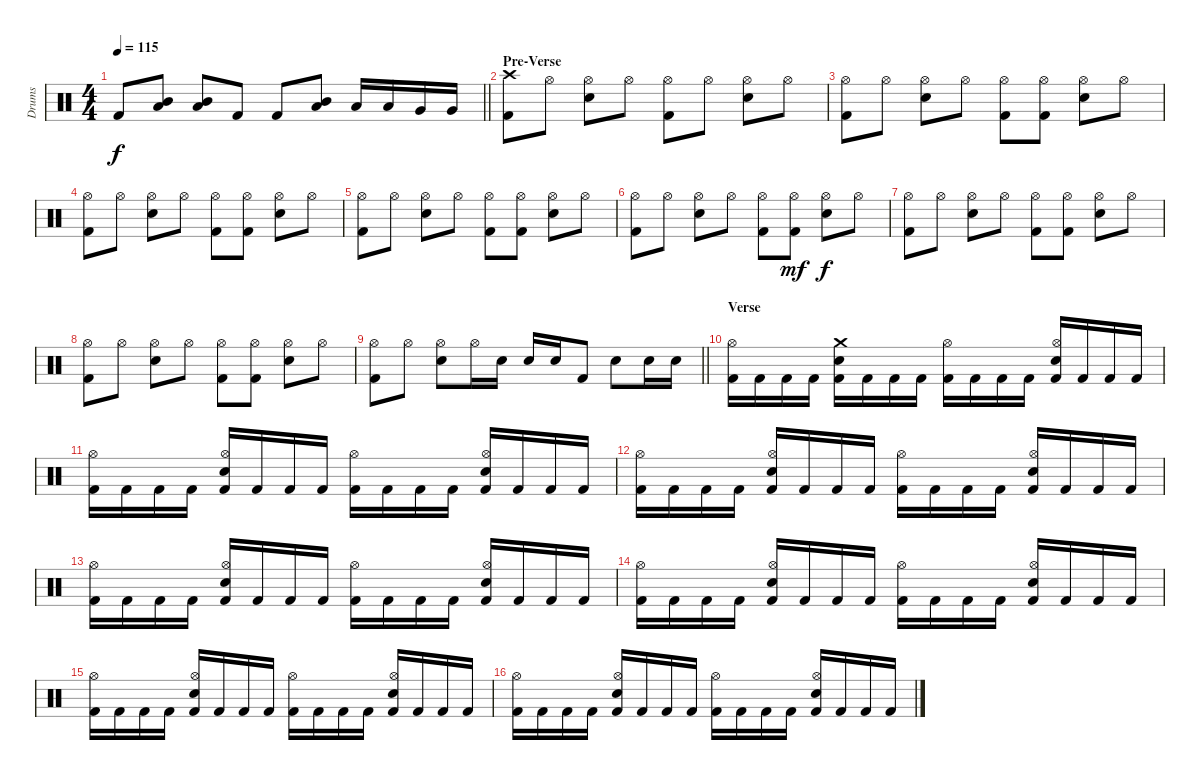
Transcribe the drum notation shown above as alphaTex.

\track ("Drums" "Drums") {instrument percussion}
\staff {score}
\articulation defaults
\ts (4 4)
\tempo 115
\clef neutral
\barLineRight lightlight
\ks c "Kick (hit) 2".8{dy f}
("Mid Tom (hit)" "Low Tom (hit)").8 ("Mid Tom (hit)" "Low Tom (hit)").8 "Kick (hit) 2".8 "Kick (hit) 2".8 ("Mid Tom (hit)" "Low Tom (hit)").8 "Low Tom (hit)".16 "Low Tom (hit)".16 "Very Low Tom (hit)".16 "Very Low Tom (hit)".16 |
\section ("" "Pre-Verse")
("Crash high (hit)" "Kick (hit) 2").8 "Hi-Hat (open)".8 ("Hi-Hat (open)" "Electric Snare (hit)").8 "Hi-Hat (open)".8 ("Hi-Hat (open)" "Kick (hit) 2").8 "Hi-Hat (open)".8 ("Hi-Hat (open)" "Electric Snare (hit)").8 "Hi-Hat (open)".8 |
("Hi-Hat (open)" "Kick (hit) 2").8 "Hi-Hat (open)".8 ("Hi-Hat (open)" "Electric Snare (hit)").8 "Hi-Hat (open)".8 ("Hi-Hat (open)" "Kick (hit) 2").8 ("Hi-Hat (open)" "Kick (hit) 2").8 ("Hi-Hat (open)" "Electric Snare (hit)").8 "Hi-Hat (open)".8 |
("Hi-Hat (open)" "Kick (hit) 2").8 "Hi-Hat (open)".8 ("Hi-Hat (open)" "Electric Snare (hit)").8 "Hi-Hat (open)".8 ("Hi-Hat (open)" "Kick (hit) 2").8 ("Hi-Hat (open)" "Kick (hit) 2").8 ("Hi-Hat (open)" "Electric Snare (hit)").8 "Hi-Hat (open)".8 |
("Hi-Hat (open)" "Kick (hit) 2").8 "Hi-Hat (open)".8 ("Hi-Hat (open)" "Electric Snare (hit)").8 "Hi-Hat (open)".8 ("Hi-Hat (open)" "Kick (hit) 2").8 ("Hi-Hat (open)" "Kick (hit) 2").8 ("Hi-Hat (open)" "Electric Snare (hit)").8 "Hi-Hat (open)".8 |
("Hi-Hat (open)" "Kick (hit) 2").8 "Hi-Hat (open)".8 ("Hi-Hat (open)" "Electric Snare (hit)").8 "Hi-Hat (open)".8 ("Hi-Hat (open)" "Kick (hit) 2").8 ("Hi-Hat (open)" "Kick (hit) 2").8{dy mf} ("Hi-Hat (open)" "Electric Snare (hit)").8{dy f} "Hi-Hat (open)".8 |
("Hi-Hat (open)" "Kick (hit) 2").8 "Hi-Hat (open)".8 ("Hi-Hat (open)" "Electric Snare (hit)").8 "Hi-Hat (open)".8 ("Hi-Hat (open)" "Kick (hit) 2").8 ("Hi-Hat (open)" "Kick (hit) 2").8 ("Hi-Hat (open)" "Electric Snare (hit)").8 "Hi-Hat (open)".8 |
("Hi-Hat (open)" "Kick (hit) 2").8 "Hi-Hat (open)".8 ("Hi-Hat (open)" "Electric Snare (hit)").8 "Hi-Hat (open)".8 ("Hi-Hat (open)" "Kick (hit) 2").8 ("Hi-Hat (open)" "Kick (hit) 2").8 ("Hi-Hat (open)" "Electric Snare (hit)").8 "Hi-Hat (open)".8 |
\barLineRight lightlight
("Hi-Hat (open)" "Kick (hit) 2").8 "Hi-Hat (open)".8 ("Hi-Hat (open)" "Electric Snare (hit)").8 "Hi-Hat (open)".16 "Electric Snare (hit)".16 "Electric Snare (hit)".16 "Electric Snare (hit)".16 "Kick (hit) 2".8 "Electric Snare (hit)".8 "Electric Snare (hit)".16 "Electric Snare (hit)".16 |
\section ("" "Verse")
("Hi-Hat (open)" "Kick (hit) 2").16 "Kick (hit) 2".16 "Kick (hit) 2".16 "Kick (hit) 2".16 ("Crash medium (hit)" "Electric Snare (hit)" "Kick (hit) 2").16 "Kick (hit) 2".16 "Kick (hit) 2".16 "Kick (hit) 2".16 ("Hi-Hat (open)" "Kick (hit) 2").16 "Kick (hit) 2".16 "Kick (hit) 2".16 "Kick (hit) 2".16 ("Hi-Hat (open)" "Electric Snare (hit)" "Kick (hit) 2").16 "Kick (hit) 2".16 "Kick (hit) 2".16 "Kick (hit) 2".16 |
("Hi-Hat (open)" "Kick (hit) 2").16 "Kick (hit) 2".16 "Kick (hit) 2".16 "Kick (hit) 2".16 ("Hi-Hat (open)" "Electric Snare (hit)" "Kick (hit) 2").16 "Kick (hit) 2".16 "Kick (hit) 2".16 "Kick (hit) 2".16 ("Hi-Hat (open)" "Kick (hit) 2").16 "Kick (hit) 2".16 "Kick (hit) 2".16 "Kick (hit) 2".16 ("Hi-Hat (open)" "Electric Snare (hit)" "Kick (hit) 2").16 "Kick (hit) 2".16 "Kick (hit) 2".16 "Kick (hit) 2".16 |
("Hi-Hat (open)" "Kick (hit) 2").16 "Kick (hit) 2".16 "Kick (hit) 2".16 "Kick (hit) 2".16 ("Hi-Hat (open)" "Electric Snare (hit)" "Kick (hit) 2").16 "Kick (hit) 2".16 "Kick (hit) 2".16 "Kick (hit) 2".16 ("Hi-Hat (open)" "Kick (hit) 2").16 "Kick (hit) 2".16 "Kick (hit) 2".16 "Kick (hit) 2".16 ("Hi-Hat (open)" "Electric Snare (hit)" "Kick (hit) 2").16 "Kick (hit) 2".16 "Kick (hit) 2".16 "Kick (hit) 2".16 |
("Hi-Hat (open)" "Kick (hit) 2").16 "Kick (hit) 2".16 "Kick (hit) 2".16 "Kick (hit) 2".16 ("Hi-Hat (open)" "Electric Snare (hit)" "Kick (hit) 2").16 "Kick (hit) 2".16 "Kick (hit) 2".16 "Kick (hit) 2".16 ("Hi-Hat (open)" "Kick (hit) 2").16 "Kick (hit) 2".16 "Kick (hit) 2".16 "Kick (hit) 2".16 ("Hi-Hat (open)" "Electric Snare (hit)" "Kick (hit) 2").16 "Kick (hit) 2".16 "Kick (hit) 2".16 "Kick (hit) 2".16 |
("Hi-Hat (open)" "Kick (hit) 2").16 "Kick (hit) 2".16 "Kick (hit) 2".16 "Kick (hit) 2".16 ("Hi-Hat (open)" "Electric Snare (hit)" "Kick (hit) 2").16 "Kick (hit) 2".16 "Kick (hit) 2".16 "Kick (hit) 2".16 ("Hi-Hat (open)" "Kick (hit) 2").16 "Kick (hit) 2".16 "Kick (hit) 2".16 "Kick (hit) 2".16 ("Hi-Hat (open)" "Electric Snare (hit)" "Kick (hit) 2").16 "Kick (hit) 2".16 "Kick (hit) 2".16 "Kick (hit) 2".16 |
("Hi-Hat (open)" "Kick (hit) 2").16 "Kick (hit) 2".16 "Kick (hit) 2".16 "Kick (hit) 2".16 ("Hi-Hat (open)" "Electric Snare (hit)" "Kick (hit) 2").16 "Kick (hit) 2".16 "Kick (hit) 2".16 "Kick (hit) 2".16 ("Hi-Hat (open)" "Kick (hit) 2").16 "Kick (hit) 2".16 "Kick (hit) 2".16 "Kick (hit) 2".16 ("Hi-Hat (open)" "Electric Snare (hit)" "Kick (hit) 2").16 "Kick (hit) 2".16 "Kick (hit) 2".16 "Kick (hit) 2".16 |
("Hi-Hat (open)" "Kick (hit) 2").16 "Kick (hit) 2".16 "Kick (hit) 2".16 "Kick (hit) 2".16 ("Hi-Hat (open)" "Electric Snare (hit)" "Kick (hit) 2").16 "Kick (hit) 2".16 "Kick (hit) 2".16 "Kick (hit) 2".16 ("Hi-Hat (open)" "Kick (hit) 2").16 "Kick (hit) 2".16 "Kick (hit) 2".16 "Kick (hit) 2".16 ("Hi-Hat (open)" "Electric Snare (hit)" "Kick (hit) 2").16 "Kick (hit) 2".16 "Kick (hit) 2".16 "Kick (hit) 2".16
